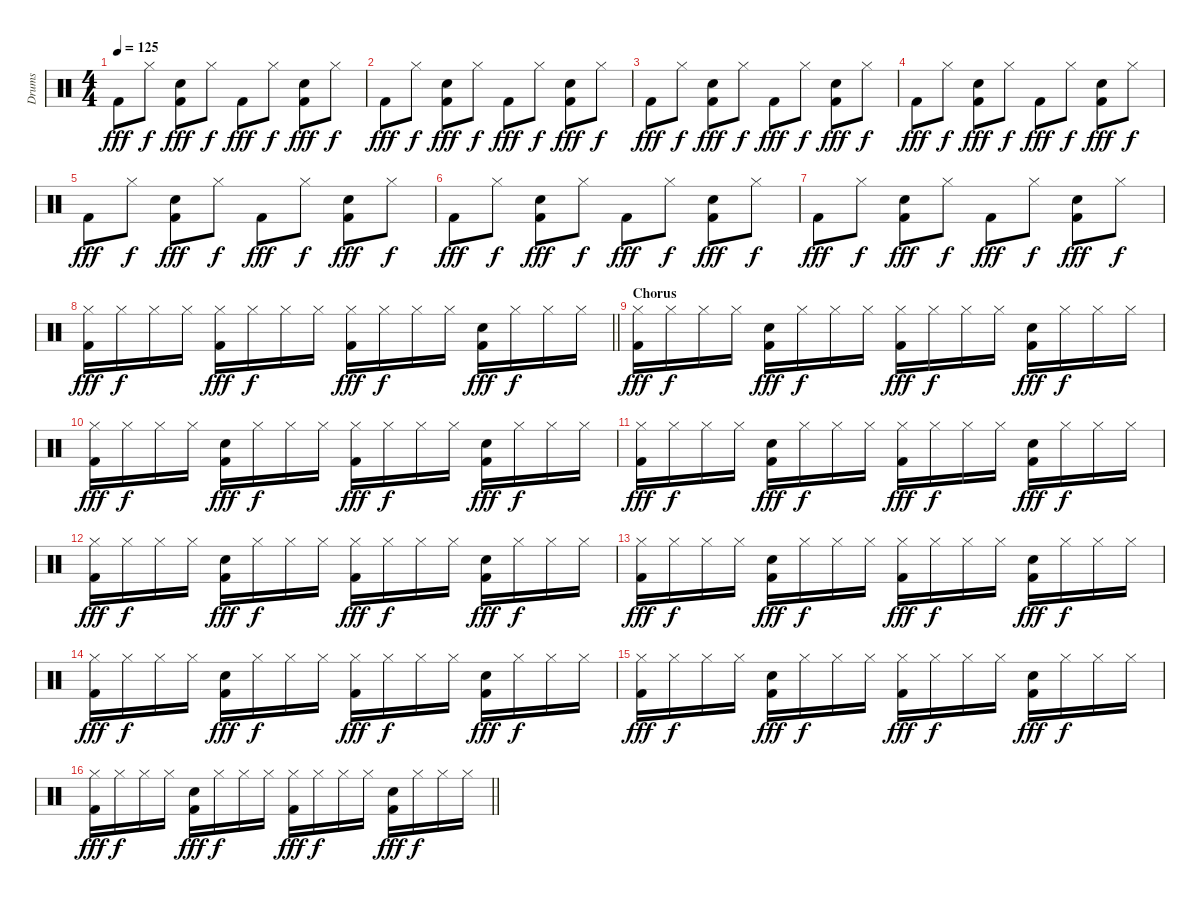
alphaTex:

\track ("Drums" "Drums") {instrument percussion}
\staff {score}
\articulation defaults
\ts (4 4)
\tempo 125
\clef neutral
\ks c "Kick (hit) 2".8{dy fff} "Hi-Hat (closed)".8{dy f}
("Snare (hit) 2" "Kick (hit) 2").8{dy fff} "Hi-Hat (closed)".8{dy f} "Kick (hit) 2".8{dy fff} "Hi-Hat (closed)".8{dy f} ("Snare (hit) 2" "Kick (hit) 2").8{dy fff} "Hi-Hat (closed)".8{dy f} |
"Kick (hit) 2".8{dy fff} "Hi-Hat (closed)".8{dy f} ("Snare (hit) 2" "Kick (hit) 2").8{dy fff} "Hi-Hat (closed)".8{dy f} "Kick (hit) 2".8{dy fff} "Hi-Hat (closed)".8{dy f} ("Snare (hit) 2" "Kick (hit) 2").8{dy fff} "Hi-Hat (closed)".8{dy f} |
"Kick (hit) 2".8{dy fff} "Hi-Hat (closed)".8{dy f} ("Snare (hit) 2" "Kick (hit) 2").8{dy fff} "Hi-Hat (closed)".8{dy f} "Kick (hit) 2".8{dy fff} "Hi-Hat (closed)".8{dy f} ("Snare (hit) 2" "Kick (hit) 2").8{dy fff} "Hi-Hat (closed)".8{dy f} |
"Kick (hit) 2".8{dy fff} "Hi-Hat (closed)".8{dy f} ("Snare (hit) 2" "Kick (hit) 2").8{dy fff} "Hi-Hat (closed)".8{dy f} "Kick (hit) 2".8{dy fff} "Hi-Hat (closed)".8{dy f} ("Snare (hit) 2" "Kick (hit) 2").8{dy fff} "Hi-Hat (closed)".8{dy f} |
"Kick (hit) 2".8{dy fff} "Hi-Hat (closed)".8{dy f} ("Snare (hit) 2" "Kick (hit) 2").8{dy fff} "Hi-Hat (closed)".8{dy f} "Kick (hit) 2".8{dy fff} "Hi-Hat (closed)".8{dy f} ("Snare (hit) 2" "Kick (hit) 2").8{dy fff} "Hi-Hat (closed)".8{dy f} |
"Kick (hit) 2".8{dy fff} "Hi-Hat (closed)".8{dy f} ("Snare (hit) 2" "Kick (hit) 2").8{dy fff} "Hi-Hat (closed)".8{dy f} "Kick (hit) 2".8{dy fff} "Hi-Hat (closed)".8{dy f} ("Snare (hit) 2" "Kick (hit) 2").8{dy fff} "Hi-Hat (closed)".8{dy f} |
"Kick (hit) 2".8{dy fff} "Hi-Hat (closed)".8{dy f} ("Snare (hit) 2" "Kick (hit) 2").8{dy fff} "Hi-Hat (closed)".8{dy f} "Kick (hit) 2".8{dy fff} "Hi-Hat (closed)".8{dy f} ("Snare (hit) 2" "Kick (hit) 2").8{dy fff} "Hi-Hat (closed)".8{dy f} |
\barLineRight lightlight
("Hi-Hat (closed)" "Kick (hit) 2").16{dy fff} "Hi-Hat (closed)".16{dy f} "Hi-Hat (closed)".16 "Hi-Hat (closed)".16 ("Hi-Hat (closed)" "Kick (hit) 2").16{dy fff} "Hi-Hat (closed)".16{dy f} "Hi-Hat (closed)".16 "Hi-Hat (closed)".16 ("Hi-Hat (closed)" "Kick (hit) 2").16{dy fff} "Hi-Hat (closed)".16{dy f} "Hi-Hat (closed)".16 "Hi-Hat (closed)".16 ("Snare (hit) 2" "Kick (hit) 2").16{dy fff} "Hi-Hat (closed)".16{dy f} "Hi-Hat (closed)".16 "Hi-Hat (closed)".16 |
\section ("" "Chorus")
("Hi-Hat (closed)" "Kick (hit) 2").16{dy fff} "Hi-Hat (closed)".16{dy f} "Hi-Hat (closed)".16 "Hi-Hat (closed)".16 ("Snare (hit) 2" "Kick (hit) 2").16{dy fff} "Hi-Hat (closed)".16{dy f} "Hi-Hat (closed)".16 "Hi-Hat (closed)".16 ("Hi-Hat (closed)" "Kick (hit) 2").16{dy fff} "Hi-Hat (closed)".16{dy f} "Hi-Hat (closed)".16 "Hi-Hat (closed)".16 ("Snare (hit) 2" "Kick (hit) 2").16{dy fff} "Hi-Hat (closed)".16{dy f} "Hi-Hat (closed)".16 "Hi-Hat (closed)".16 |
("Hi-Hat (closed)" "Kick (hit) 2").16{dy fff} "Hi-Hat (closed)".16{dy f} "Hi-Hat (closed)".16 "Hi-Hat (closed)".16 ("Snare (hit) 2" "Kick (hit) 2").16{dy fff} "Hi-Hat (closed)".16{dy f} "Hi-Hat (closed)".16 "Hi-Hat (closed)".16 ("Hi-Hat (closed)" "Kick (hit) 2").16{dy fff} "Hi-Hat (closed)".16{dy f} "Hi-Hat (closed)".16 "Hi-Hat (closed)".16 ("Snare (hit) 2" "Kick (hit) 2").16{dy fff} "Hi-Hat (closed)".16{dy f} "Hi-Hat (closed)".16 "Hi-Hat (closed)".16 |
("Hi-Hat (closed)" "Kick (hit) 2").16{dy fff} "Hi-Hat (closed)".16{dy f} "Hi-Hat (closed)".16 "Hi-Hat (closed)".16 ("Snare (hit) 2" "Kick (hit) 2").16{dy fff} "Hi-Hat (closed)".16{dy f} "Hi-Hat (closed)".16 "Hi-Hat (closed)".16 ("Hi-Hat (closed)" "Kick (hit) 2").16{dy fff} "Hi-Hat (closed)".16{dy f} "Hi-Hat (closed)".16 "Hi-Hat (closed)".16 ("Snare (hit) 2" "Kick (hit) 2").16{dy fff} "Hi-Hat (closed)".16{dy f} "Hi-Hat (closed)".16 "Hi-Hat (closed)".16 |
("Hi-Hat (closed)" "Kick (hit) 2").16{dy fff} "Hi-Hat (closed)".16{dy f} "Hi-Hat (closed)".16 "Hi-Hat (closed)".16 ("Snare (hit) 2" "Kick (hit) 2").16{dy fff} "Hi-Hat (closed)".16{dy f} "Hi-Hat (closed)".16 "Hi-Hat (closed)".16 ("Hi-Hat (closed)" "Kick (hit) 2").16{dy fff} "Hi-Hat (closed)".16{dy f} "Hi-Hat (closed)".16 "Hi-Hat (closed)".16 ("Snare (hit) 2" "Kick (hit) 2").16{dy fff} "Hi-Hat (closed)".16{dy f} "Hi-Hat (closed)".16 "Hi-Hat (closed)".16 |
("Hi-Hat (closed)" "Kick (hit) 2").16{dy fff} "Hi-Hat (closed)".16{dy f} "Hi-Hat (closed)".16 "Hi-Hat (closed)".16 ("Snare (hit) 2" "Kick (hit) 2").16{dy fff} "Hi-Hat (closed)".16{dy f} "Hi-Hat (closed)".16 "Hi-Hat (closed)".16 ("Hi-Hat (closed)" "Kick (hit) 2").16{dy fff} "Hi-Hat (closed)".16{dy f} "Hi-Hat (closed)".16 "Hi-Hat (closed)".16 ("Snare (hit) 2" "Kick (hit) 2").16{dy fff} "Hi-Hat (closed)".16{dy f} "Hi-Hat (closed)".16 "Hi-Hat (closed)".16 |
("Hi-Hat (closed)" "Kick (hit) 2").16{dy fff} "Hi-Hat (closed)".16{dy f} "Hi-Hat (closed)".16 "Hi-Hat (closed)".16 ("Snare (hit) 2" "Kick (hit) 2").16{dy fff} "Hi-Hat (closed)".16{dy f} "Hi-Hat (closed)".16 "Hi-Hat (closed)".16 ("Hi-Hat (closed)" "Kick (hit) 2").16{dy fff} "Hi-Hat (closed)".16{dy f} "Hi-Hat (closed)".16 "Hi-Hat (closed)".16 ("Snare (hit) 2" "Kick (hit) 2").16{dy fff} "Hi-Hat (closed)".16{dy f} "Hi-Hat (closed)".16 "Hi-Hat (closed)".16 |
("Hi-Hat (closed)" "Kick (hit) 2").16{dy fff} "Hi-Hat (closed)".16{dy f} "Hi-Hat (closed)".16 "Hi-Hat (closed)".16 ("Snare (hit) 2" "Kick (hit) 2").16{dy fff} "Hi-Hat (closed)".16{dy f} "Hi-Hat (closed)".16 "Hi-Hat (closed)".16 ("Hi-Hat (closed)" "Kick (hit) 2").16{dy fff} "Hi-Hat (closed)".16{dy f} "Hi-Hat (closed)".16 "Hi-Hat (closed)".16 ("Snare (hit) 2" "Kick (hit) 2").16{dy fff} "Hi-Hat (closed)".16{dy f} "Hi-Hat (closed)".16 "Hi-Hat (closed)".16 |
\barLineRight lightlight
("Hi-Hat (closed)" "Kick (hit) 2").16{dy fff} "Hi-Hat (closed)".16{dy f} "Hi-Hat (closed)".16 "Hi-Hat (closed)".16 ("Snare (hit) 2" "Kick (hit) 2").16{dy fff} "Hi-Hat (closed)".16{dy f} "Hi-Hat (closed)".16 "Hi-Hat (closed)".16 ("Hi-Hat (closed)" "Kick (hit) 2").16{dy fff} "Hi-Hat (closed)".16{dy f} "Hi-Hat (closed)".16 "Hi-Hat (closed)".16 ("Snare (hit) 2" "Kick (hit) 2").16{dy fff} "Hi-Hat (closed)".16{dy f} "Hi-Hat (closed)".16 "Hi-Hat (closed)".16
